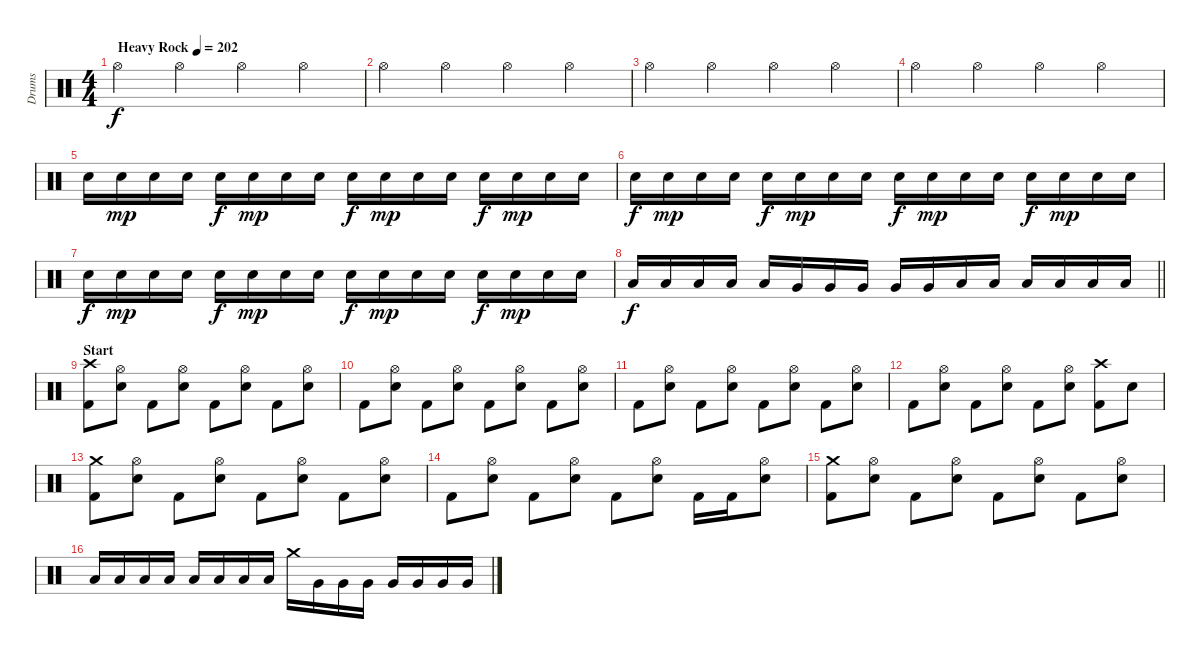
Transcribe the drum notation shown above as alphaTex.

\track ("Drums" "Drums") {instrument percussion}
\staff {score}
\articulation defaults
\ts (4 4)
\tempo (202 "Heavy Rock")
\clef neutral
\ks c "Hi-Hat (open)".4{dy f} "Hi-Hat (open)".4 "Hi-Hat (open)".4 "Hi-Hat (open)".4
|
"Hi-Hat (open)".4 "Hi-Hat (open)".4 "Hi-Hat (open)".4 "Hi-Hat (open)".4 |
"Hi-Hat (open)".4 "Hi-Hat (open)".4 "Hi-Hat (open)".4 "Hi-Hat (open)".4 |
"Hi-Hat (open)".4 "Hi-Hat (open)".4 "Hi-Hat (open)".4 "Hi-Hat (open)".4 |
"Snare (hit) 2".16 "Snare (hit) 2".16{dy mp} "Snare (hit) 2".16 "Snare (hit) 2".16 "Snare (hit) 2".16{dy f} "Snare (hit) 2".16{dy mp} "Snare (hit) 2".16 "Snare (hit) 2".16 "Snare (hit) 2".16{dy f} "Snare (hit) 2".16{dy mp} "Snare (hit) 2".16 "Snare (hit) 2".16 "Snare (hit) 2".16{dy f} "Snare (hit) 2".16{dy mp} "Snare (hit) 2".16 "Snare (hit) 2".16 |
"Snare (hit) 2".16{dy f} "Snare (hit) 2".16{dy mp} "Snare (hit) 2".16 "Snare (hit) 2".16 "Snare (hit) 2".16{dy f} "Snare (hit) 2".16{dy mp} "Snare (hit) 2".16 "Snare (hit) 2".16 "Snare (hit) 2".16{dy f} "Snare (hit) 2".16{dy mp} "Snare (hit) 2".16 "Snare (hit) 2".16 "Snare (hit) 2".16{dy f} "Snare (hit) 2".16{dy mp} "Snare (hit) 2".16 "Snare (hit) 2".16 |
"Snare (hit) 2".16{dy f} "Snare (hit) 2".16{dy mp} "Snare (hit) 2".16 "Snare (hit) 2".16 "Snare (hit) 2".16{dy f} "Snare (hit) 2".16{dy mp} "Snare (hit) 2".16 "Snare (hit) 2".16 "Snare (hit) 2".16{dy f} "Snare (hit) 2".16{dy mp} "Snare (hit) 2".16 "Snare (hit) 2".16 "Snare (hit) 2".16{dy f} "Snare (hit) 2".16{dy mp} "Snare (hit) 2".16 "Snare (hit) 2".16 |
\barLineRight lightlight "Low Tom (hit)".16{dy f} "Low Tom (hit)".16 "Low Tom (hit)".16 "Low Tom (hit)".16 "Low Tom (hit)".16 "Very Low Tom (hit)".16 "Very Low Tom (hit)".16 "Very Low Tom (hit)".16 "Very Low Tom (hit)".16 "Very Low Tom (hit)".16 "Low Floor Tom (hit)".16 "Low Floor Tom (hit)".16 "Low Floor Tom (hit)".16 "Low Floor Tom (hit)".16 "Low Floor Tom (hit)".16 "Low Floor Tom (hit)".16
|
\section ("" "Start")
("Crash high (hit)" "Kick (hit) 2").8 ("Hi-Hat (open)" "Snare (hit) 2").8 "Kick (hit) 2".8 ("Hi-Hat (open)" "Snare (hit) 2").8 "Kick (hit) 2".8 ("Hi-Hat (open)" "Snare (hit) 2").8 "Kick (hit) 2".8 ("Hi-Hat (open)" "Snare (hit) 2").8 |
"Kick (hit) 2".8 ("Hi-Hat (open)" "Snare (hit) 2").8 "Kick (hit) 2".8 ("Hi-Hat (open)" "Snare (hit) 2").8 "Kick (hit) 2".8 ("Hi-Hat (open)" "Snare (hit) 2").8 "Kick (hit) 2".8 ("Hi-Hat (open)" "Snare (hit) 2").8 |
"Kick (hit) 2".8 ("Hi-Hat (open)" "Snare (hit) 2").8 "Kick (hit) 2".8 ("Hi-Hat (open)" "Snare (hit) 2").8 "Kick (hit) 2".8 ("Hi-Hat (open)" "Snare (hit) 2").8 "Kick (hit) 2".8 ("Hi-Hat (open)" "Snare (hit) 2").8 |
"Kick (hit) 2".8 ("Hi-Hat (open)" "Snare (hit) 2").8 "Kick (hit) 2".8 ("Hi-Hat (open)" "Snare (hit) 2").8 "Kick (hit) 2".8 ("Hi-Hat (open)" "Snare (hit) 2").8 ("Crash high (hit)" "Kick (hit) 2").8 "Snare (hit) 2".8 |
("Crash medium (hit)" "Kick (hit) 2").8 ("Hi-Hat (open)" "Snare (hit) 2").8 "Kick (hit) 2".8 ("Hi-Hat (open)" "Snare (hit) 2").8 "Kick (hit) 2".8 ("Hi-Hat (open)" "Snare (hit) 2").8 "Kick (hit) 2".8 ("Hi-Hat (open)" "Snare (hit) 2").8 |
"Kick (hit) 2".8 ("Hi-Hat (open)" "Snare (hit) 2").8 "Kick (hit) 2".8 ("Hi-Hat (open)" "Snare (hit) 2").8 "Kick (hit) 2".8 ("Hi-Hat (open)" "Snare (hit) 2").8 "Kick (hit) 2".16 "Kick (hit) 2".16 ("Hi-Hat (open)" "Snare (hit) 2").8 |
("Crash medium (hit)" "Kick (hit) 2").8 ("Hi-Hat (open)" "Snare (hit) 2").8 "Kick (hit) 2".8 ("Hi-Hat (open)" "Snare (hit) 2").8 "Kick (hit) 2".8 ("Hi-Hat (open)" "Snare (hit) 2").8 "Kick (hit) 2".8 ("Hi-Hat (open)" "Snare (hit) 2").8 |
"Low Tom (hit)".16 "Low Tom (hit)".16 "Low Tom (hit)".16 "Low Tom (hit)".16 "Low Tom (hit)".16 "Low Tom (hit)".16 "Low Tom (hit)".16 "Low Tom (hit)".16 "Crash medium (hit)".16 "Very Low Tom (hit)".16 "Very Low Tom (hit)".16 "Very Low Tom (hit)".16 "Very Low Tom (hit)".16 "Very Low Tom (hit)".16 "Very Low Tom (hit)".16 "Very Low Tom (hit)".16
